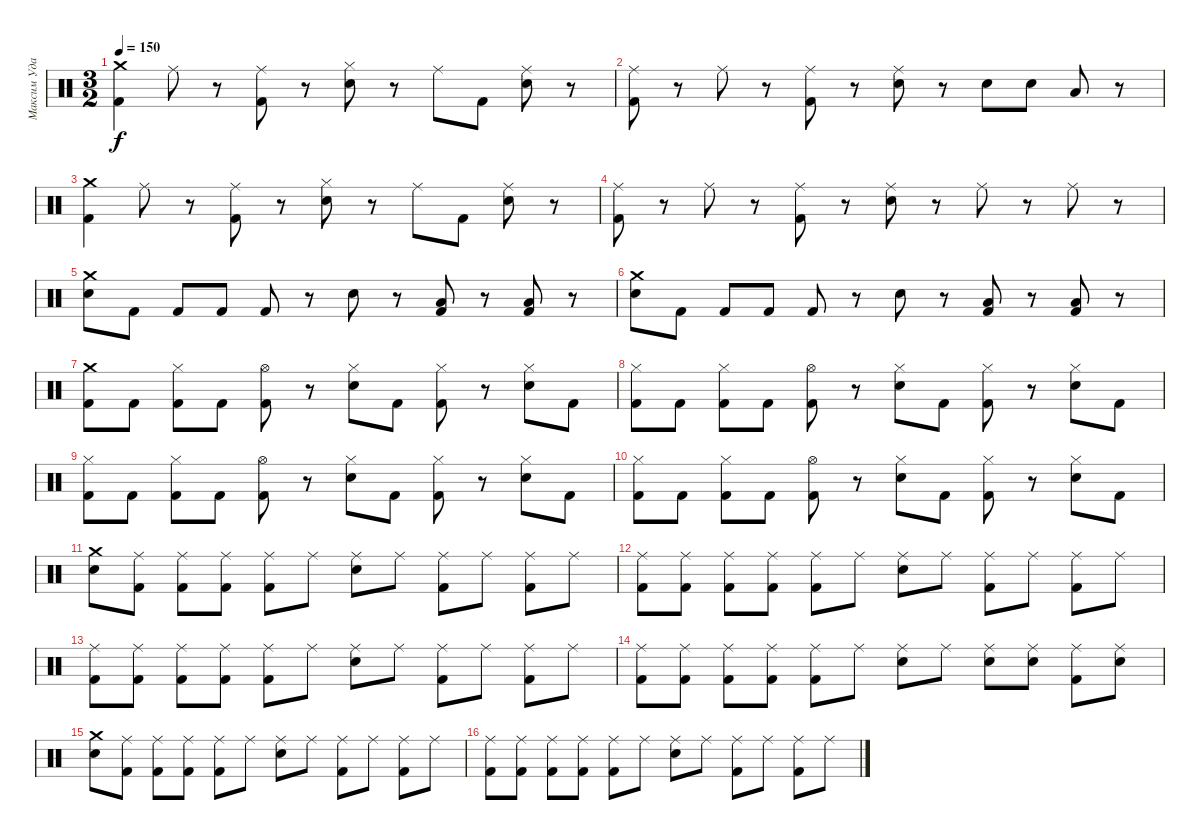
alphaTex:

\track ("Максим Удалов" "Максим Уда") {instrument percussion}
\staff {score}
\articulation defaults
\ts (3 2)
\tempo 150
\clef neutral
\ks c
("Crash medium (hit)" "Kick (hit) 2").4{dy f} "Ride (middle)".8 r.8 ("Kick (hit) 2" "Ride (middle)").8 r.8 ("Electric Snare (hit)" "Hi-Hat (closed)").8 r.8 "Ride (middle)".8 "Kick (hit) 2".8 ("Electric Snare (hit)" "Ride (middle)").8 r.8 |
("Kick (hit) 2" "Ride (middle)").8 r.8 "Ride (middle)".8 r.8 ("Kick (hit) 2" "Ride (middle)").8 r.8 ("Electric Snare (hit)" "Ride (middle)").8 r.8 "Electric Snare (hit)".8 "Electric Snare (hit)".8 "Low Floor Tom (hit)".8 r.8 |
("Kick (hit) 2" "Crash medium (hit)").4 "Ride (middle)".8 r.8 ("Kick (hit) 2" "Ride (middle)").8 r.8 ("Electric Snare (hit)" "Hi-Hat (closed)").8 r.8 "Ride (middle)".8 "Kick (hit) 2".8 ("Ride (middle)" "Electric Snare (hit)").8 r.8 |
("Ride (middle)" "Kick (hit) 2").8 r.8 "Ride (middle)".8 r.8 ("Kick (hit) 2" "Ride (middle)").8 r.8 ("Electric Snare (hit)" "Ride (middle)").8 r.8 "Ride (middle)".8 r.8 "Ride (middle)".8 r.8 |
("Electric Snare (hit)" "Crash medium (hit)").8 "Kick (hit) 2".8 "Kick (hit) 2".8 "Kick (hit) 2".8 "Kick (hit) 2".8 r.8 "Electric Snare (hit)".8 r.8 ("Low Floor Tom (hit)" "Kick (hit) 2").8 r.8 ("Kick (hit) 2" "Low Floor Tom (hit)").8 r.8 |
("Electric Snare (hit)" "Crash medium (hit)").8 "Kick (hit) 2".8 "Kick (hit) 2".8 "Kick (hit) 2".8 "Kick (hit) 2".8 r.8 "Electric Snare (hit)".8 r.8 ("Kick (hit) 2" "Low Floor Tom (hit)").8 r.8 ("Low Floor Tom (hit)" "Kick (hit) 2").8 r.8 |
("Kick (hit) 2" "Crash medium (hit)").8 "Kick (hit) 2".8 ("Kick (hit) 2" "Hi-Hat (closed)").8 "Kick (hit) 2".8 ("Kick (hit) 2" "Hi-Hat (open)").8 r.8 ("Hi-Hat (closed)" "Electric Snare (hit)").8 "Kick (hit) 2".8 ("Hi-Hat (closed)" "Kick (hit) 2").8 r.8 ("Electric Snare (hit)" "Hi-Hat (closed)").8 "Kick (hit) 2".8 |
("Kick (hit) 2" "Hi-Hat (closed)").8 "Kick (hit) 2".8 ("Kick (hit) 2" "Hi-Hat (closed)").8 "Kick (hit) 2".8 ("Hi-Hat (open)" "Kick (hit) 2").8 r.8 ("Hi-Hat (closed)" "Electric Snare (hit)").8 "Kick (hit) 2".8 ("Hi-Hat (closed)" "Kick (hit) 2").8 r.8 ("Hi-Hat (closed)" "Electric Snare (hit)").8 "Kick (hit) 2".8 |
("Kick (hit) 2" "Hi-Hat (closed)").8 "Kick (hit) 2".8 ("Hi-Hat (closed)" "Kick (hit) 2").8 "Kick (hit) 2".8 ("Kick (hit) 2" "Hi-Hat (open)").8 r.8 ("Electric Snare (hit)" "Hi-Hat (closed)").8 "Kick (hit) 2".8 ("Hi-Hat (closed)" "Kick (hit) 2").8 r.8 ("Hi-Hat (closed)" "Electric Snare (hit)").8 "Kick (hit) 2".8 |
("Kick (hit) 2" "Hi-Hat (closed)").8 "Kick (hit) 2".8 ("Kick (hit) 2" "Hi-Hat (closed)").8 "Kick (hit) 2".8 ("Kick (hit) 2" "Hi-Hat (open)").8 r.8 ("Hi-Hat (closed)" "Electric Snare (hit)").8 "Kick (hit) 2".8 ("Hi-Hat (closed)" "Kick (hit) 2").8 r.8 ("Hi-Hat (closed)" "Electric Snare (hit)").8 "Kick (hit) 2".8 |
("Crash medium (hit)" "Electric Snare (hit)").8 ("Kick (hit) 2" "Ride (middle)").8 ("Kick (hit) 2" "Ride (middle)").8 ("Ride (middle)" "Kick (hit) 2").8 ("Kick (hit) 2" "Ride (middle)").8 "Ride (middle)".8 ("Ride (middle)" "Electric Snare (hit)").8 "Ride (middle)".8 ("Ride (middle)" "Kick (hit) 2").8 "Ride (middle)".8 ("Kick (hit) 2" "Ride (middle)").8 "Ride (middle)".8 |
("Kick (hit) 2" "Ride (middle)").8 ("Ride (middle)" "Kick (hit) 2").8 ("Ride (middle)" "Kick (hit) 2").8 ("Kick (hit) 2" "Ride (middle)").8 ("Kick (hit) 2" "Ride (middle)").8 "Ride (middle)".8 ("Ride (middle)" "Electric Snare (hit)").8 "Ride (middle)".8 ("Ride (middle)" "Kick (hit) 2").8 "Ride (middle)".8 ("Kick (hit) 2" "Ride (middle)").8 "Ride (middle)".8 |
("Ride (middle)" "Kick (hit) 2").8 ("Kick (hit) 2" "Ride (middle)").8 ("Kick (hit) 2" "Ride (middle)").8 ("Ride (middle)" "Kick (hit) 2").8 ("Kick (hit) 2" "Ride (middle)").8 "Ride (middle)".8 ("Electric Snare (hit)" "Ride (middle)").8 "Ride (middle)".8 ("Ride (middle)" "Kick (hit) 2").8 "Ride (middle)".8 ("Ride (middle)" "Kick (hit) 2").8 "Ride (middle)".8 |
("Kick (hit) 2" "Ride (middle)").8 ("Kick (hit) 2" "Ride (middle)").8 ("Ride (middle)" "Kick (hit) 2").8 ("Ride (middle)" "Kick (hit) 2").8 ("Kick (hit) 2" "Ride (middle)").8 "Ride (middle)".8 ("Electric Snare (hit)" "Ride (middle)").8 "Ride (middle)".8 ("Ride (middle)" "Electric Snare (hit)").8 ("Ride (middle)" "Electric Snare (hit)").8 ("Ride (middle)" "Kick (hit) 2").8 ("Ride (middle)" "Electric Snare (hit)").8 |
("Crash medium (hit)" "Electric Snare (hit)").8 ("Ride (middle)" "Kick (hit) 2").8 ("Kick (hit) 2" "Ride (middle)").8 ("Ride (middle)" "Kick (hit) 2").8 ("Ride (middle)" "Kick (hit) 2").8 "Ride (middle)".8 ("Ride (middle)" "Electric Snare (hit)").8 "Ride (middle)".8 ("Kick (hit) 2" "Ride (middle)").8 "Ride (middle)".8 ("Kick (hit) 2" "Ride (middle)").8 "Ride (middle)".8 |
("Ride (middle)" "Kick (hit) 2").8 ("Kick (hit) 2" "Ride (middle)").8 ("Ride (middle)" "Kick (hit) 2").8 ("Kick (hit) 2" "Ride (middle)").8 ("Ride (middle)" "Kick (hit) 2").8 "Ride (middle)".8 ("Electric Snare (hit)" "Ride (middle)").8 "Ride (middle)".8 ("Ride (middle)" "Kick (hit) 2").8 "Ride (middle)".8 ("Kick (hit) 2" "Ride (middle)").8 "Ride (middle)".8
